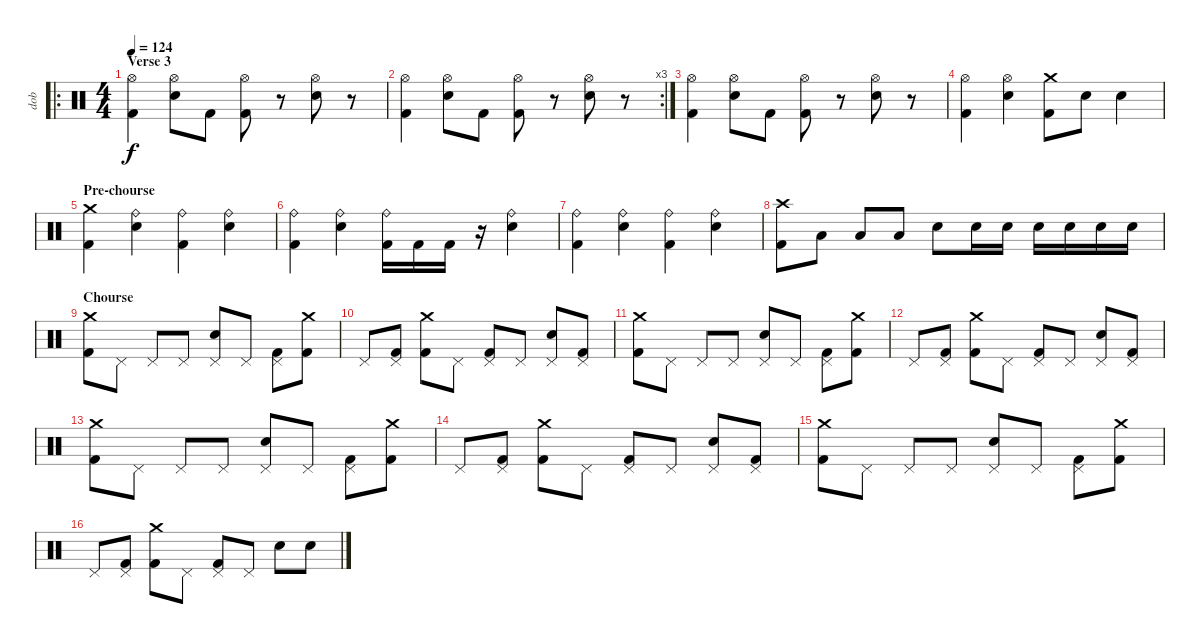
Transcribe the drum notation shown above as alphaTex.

\track ("dob" "dob") {instrument percussion}
\staff {score}
\articulation defaults
\ro
\ts (4 4)
\section ("" "Verse 3")
\tempo 124
\clef neutral
\ks c
("Hi-Hat (open)" "Kick (hit) 2").4{dy f} ("Hi-Hat (open)" "Electric Snare (hit)").8 "Kick (hit) 2".8 ("Hi-Hat (open)" "Kick (hit) 2").8 r.8 ("Hi-Hat (open)" "Electric Snare (hit)").8 r.8 |
\rc 3
("Hi-Hat (open)" "Kick (hit) 2").4 ("Hi-Hat (open)" "Electric Snare (hit)").8 "Kick (hit) 2".8 ("Hi-Hat (open)" "Kick (hit) 2").8 r.8 ("Hi-Hat (open)" "Electric Snare (hit)").8 r.8 |
("Hi-Hat (open)" "Kick (hit) 2").4 ("Hi-Hat (open)" "Electric Snare (hit)").8 "Kick (hit) 2".8 ("Hi-Hat (open)" "Kick (hit) 2").8 r.8 ("Hi-Hat (open)" "Electric Snare (hit)").8 r.8 |
("Hi-Hat (open)" "Kick (hit) 2").4 ("Hi-Hat (open)" "Electric Snare (hit)").4 ("Crash medium (hit)" "Kick (hit) 2").8 "Electric Snare (hit)".8 "Electric Snare (hit)".4 |
\section ("" "Pre-chourse")
("Crash medium (hit)" "Kick (hit) 2").4 ("Ride (bell)" "Electric Snare (hit)").4 ("Ride (bell)" "Kick (hit) 2").4 ("Ride (bell)" "Electric Snare (hit)").4 |
("Ride (bell)" "Kick (hit) 2").4 ("Ride (bell)" "Electric Snare (hit)").4 ("Ride (bell)" "Kick (hit) 2").16 "Kick (hit) 2".16 "Kick (hit) 2".16 r.16 ("Ride (bell)" "Electric Snare (hit)").4 |
("Ride (bell)" "Kick (hit) 2").4 ("Ride (bell)" "Electric Snare (hit)").4 ("Ride (bell)" "Kick (hit) 2").4 ("Ride (bell)" "Electric Snare (hit)").4 |
("Crash high (hit)" "Kick (hit) 2").8 "Low Tom (hit)".8 "Low Tom (hit)".8 "Low Tom (hit)".8 "Electric Snare (hit)".8 "Electric Snare (hit)".16 "Electric Snare (hit)".16 "Electric Snare (hit)".16 "Electric Snare (hit)".16 "Electric Snare (hit)".16 "Electric Snare (hit)".16 |
\section ("" "Chourse")
("Crash medium (hit)" "Kick (hit) 2").8 "Pedal Hi-Hat (hit)".8 "Pedal Hi-Hat (hit)".8 "Pedal Hi-Hat (hit)".8 ("Pedal Hi-Hat (hit)" "Electric Snare (hit)").8 "Pedal Hi-Hat (hit)".8 ("Pedal Hi-Hat (hit)" "Kick (hit) 2").8 ("Crash medium (hit)" "Kick (hit) 2").8 |
"Pedal Hi-Hat (hit)".8 ("Pedal Hi-Hat (hit)" "Kick (hit) 2").8 ("Crash medium (hit)" "Kick (hit) 2").8 "Pedal Hi-Hat (hit)".8 ("Pedal Hi-Hat (hit)" "Kick (hit) 2").8 "Pedal Hi-Hat (hit)".8 ("Pedal Hi-Hat (hit)" "Electric Snare (hit)").8 ("Pedal Hi-Hat (hit)" "Kick (hit) 2").8 |
("Crash medium (hit)" "Kick (hit) 2").8 "Pedal Hi-Hat (hit)".8 "Pedal Hi-Hat (hit)".8 "Pedal Hi-Hat (hit)".8 ("Pedal Hi-Hat (hit)" "Electric Snare (hit)").8 "Pedal Hi-Hat (hit)".8 ("Pedal Hi-Hat (hit)" "Kick (hit) 2").8 ("Crash medium (hit)" "Kick (hit) 2").8 |
"Pedal Hi-Hat (hit)".8 ("Pedal Hi-Hat (hit)" "Kick (hit) 2").8 ("Crash medium (hit)" "Kick (hit) 2").8 "Pedal Hi-Hat (hit)".8 ("Pedal Hi-Hat (hit)" "Kick (hit) 2").8 "Pedal Hi-Hat (hit)".8 ("Pedal Hi-Hat (hit)" "Electric Snare (hit)").8 ("Pedal Hi-Hat (hit)" "Kick (hit) 2").8 |
("Crash medium (hit)" "Kick (hit) 2").8 "Pedal Hi-Hat (hit)".8 "Pedal Hi-Hat (hit)".8 "Pedal Hi-Hat (hit)".8 ("Pedal Hi-Hat (hit)" "Electric Snare (hit)").8 "Pedal Hi-Hat (hit)".8 ("Pedal Hi-Hat (hit)" "Kick (hit) 2").8 ("Crash medium (hit)" "Kick (hit) 2").8 |
"Pedal Hi-Hat (hit)".8 ("Pedal Hi-Hat (hit)" "Kick (hit) 2").8 ("Crash medium (hit)" "Kick (hit) 2").8 "Pedal Hi-Hat (hit)".8 ("Pedal Hi-Hat (hit)" "Kick (hit) 2").8 "Pedal Hi-Hat (hit)".8 ("Pedal Hi-Hat (hit)" "Electric Snare (hit)").8 ("Pedal Hi-Hat (hit)" "Kick (hit) 2").8 |
("Crash medium (hit)" "Kick (hit) 2").8 "Pedal Hi-Hat (hit)".8 "Pedal Hi-Hat (hit)".8 "Pedal Hi-Hat (hit)".8 ("Pedal Hi-Hat (hit)" "Electric Snare (hit)").8 "Pedal Hi-Hat (hit)".8 ("Pedal Hi-Hat (hit)" "Kick (hit) 2").8 ("Crash medium (hit)" "Kick (hit) 2").8 |
"Pedal Hi-Hat (hit)".8 ("Pedal Hi-Hat (hit)" "Kick (hit) 2").8 ("Crash medium (hit)" "Kick (hit) 2").8 "Pedal Hi-Hat (hit)".8 ("Pedal Hi-Hat (hit)" "Kick (hit) 2").8 "Pedal Hi-Hat (hit)".8 "Electric Snare (hit)".8 "Electric Snare (hit)".8
